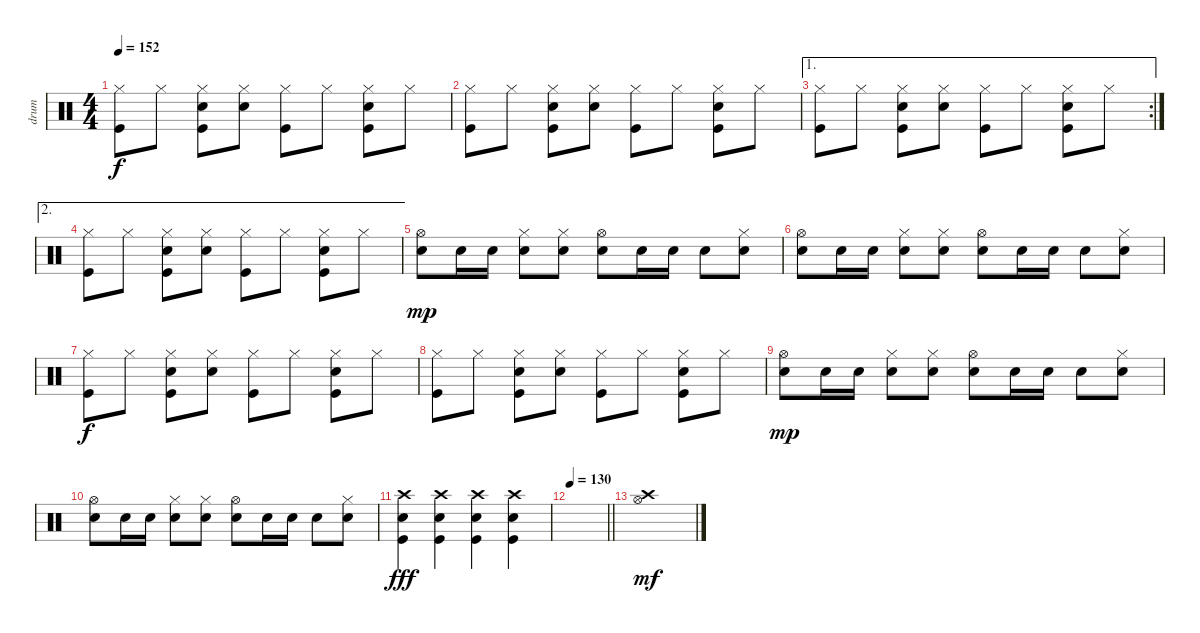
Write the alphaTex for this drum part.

\track ("drum" "drum") {instrument percussion}
\staff {score}
\articulation defaults
\ts (4 4)
\tempo 152
\clef neutral
\ks c
("Hi-Hat (closed)" "Kick (hit)").8{dy f} "Hi-Hat (closed)".8 ("Hi-Hat (closed)" "Snare (hit) 2" "Kick (hit)").8 ("Hi-Hat (closed)" "Snare (hit) 2").8 ("Hi-Hat (closed)" "Kick (hit)").8 "Hi-Hat (closed)".8 ("Hi-Hat (closed)" "Snare (hit) 2" "Kick (hit)").8 "Hi-Hat (closed)".8 |
("Hi-Hat (closed)" "Kick (hit)").8 "Hi-Hat (closed)".8 ("Hi-Hat (closed)" "Snare (hit) 2" "Kick (hit)").8 ("Hi-Hat (closed)" "Snare (hit) 2").8 ("Hi-Hat (closed)" "Kick (hit)").8 "Hi-Hat (closed)".8 ("Hi-Hat (closed)" "Snare (hit) 2" "Kick (hit)").8 "Hi-Hat (closed)".8 |
\ae 1
\rc 2
("Hi-Hat (closed)" "Kick (hit)").8 "Hi-Hat (closed)".8 ("Hi-Hat (closed)" "Snare (hit) 2" "Kick (hit)").8 ("Hi-Hat (closed)" "Snare (hit) 2").8 ("Hi-Hat (closed)" "Kick (hit)").8 "Hi-Hat (closed)".8 ("Hi-Hat (closed)" "Snare (hit) 2" "Kick (hit)").8 "Hi-Hat (closed)".8 |
\ae 2
("Hi-Hat (closed)" "Kick (hit)").8 "Hi-Hat (closed)".8 ("Hi-Hat (closed)" "Snare (hit) 2" "Kick (hit)").8 ("Hi-Hat (closed)" "Snare (hit) 2").8 ("Hi-Hat (closed)" "Kick (hit)").8 "Hi-Hat (closed)".8 ("Hi-Hat (closed)" "Snare (hit) 2" "Kick (hit)").8 "Hi-Hat (closed)".8 |
("Hi-Hat (open)" "Snare (hit) 2").8{dy mp} "Snare (hit) 2".16 "Snare (hit) 2".16 ("Hi-Hat (closed)" "Snare (hit) 2").8 ("Hi-Hat (closed)" "Snare (hit) 2").8 ("Hi-Hat (open)" "Snare (hit) 2").8 "Snare (hit) 2".16 "Snare (hit) 2".16 "Snare (hit) 2".8 ("Hi-Hat (closed)" "Snare (hit) 2").8 |
("Hi-Hat (open)" "Snare (hit) 2").8 "Snare (hit) 2".16 "Snare (hit) 2".16 ("Hi-Hat (closed)" "Snare (hit) 2").8 ("Hi-Hat (closed)" "Snare (hit) 2").8 ("Hi-Hat (open)" "Snare (hit) 2").8 "Snare (hit) 2".16 "Snare (hit) 2".16 "Snare (hit) 2".8 ("Hi-Hat (closed)" "Snare (hit) 2").8 |
("Hi-Hat (closed)" "Kick (hit)").8{dy f} "Hi-Hat (closed)".8 ("Hi-Hat (closed)" "Snare (hit) 2" "Kick (hit)").8 ("Hi-Hat (closed)" "Snare (hit) 2").8 ("Hi-Hat (closed)" "Kick (hit)").8 "Hi-Hat (closed)".8 ("Hi-Hat (closed)" "Snare (hit) 2" "Kick (hit)").8 "Hi-Hat (closed)".8 |
("Hi-Hat (closed)" "Kick (hit)").8 "Hi-Hat (closed)".8 ("Hi-Hat (closed)" "Snare (hit) 2" "Kick (hit)").8 ("Hi-Hat (closed)" "Snare (hit) 2").8 ("Hi-Hat (closed)" "Kick (hit)").8 "Hi-Hat (closed)".8 ("Hi-Hat (closed)" "Snare (hit) 2" "Kick (hit)").8 "Hi-Hat (closed)".8 |
("Hi-Hat (open)" "Snare (hit) 2").8{dy mp} "Snare (hit) 2".16 "Snare (hit) 2".16 ("Hi-Hat (closed)" "Snare (hit) 2").8 ("Hi-Hat (closed)" "Snare (hit) 2").8 ("Hi-Hat (open)" "Snare (hit) 2").8 "Snare (hit) 2".16 "Snare (hit) 2".16 "Snare (hit) 2".8 ("Hi-Hat (closed)" "Snare (hit) 2").8 |
("Hi-Hat (open)" "Snare (hit) 2").8 "Snare (hit) 2".16 "Snare (hit) 2".16 ("Hi-Hat (closed)" "Snare (hit) 2").8 ("Hi-Hat (closed)" "Snare (hit) 2").8 ("Hi-Hat (open)" "Snare (hit) 2").8 "Snare (hit) 2".16 "Snare (hit) 2".16 "Snare (hit) 2".8 ("Hi-Hat (closed)" "Snare (hit) 2").8 |
("Crash high (hit)" "Snare (hit) 2" "Kick (hit)").4{dy fff} ("Crash high (hit)" "Snare (hit) 2" "Kick (hit)").4 ("Crash high (hit)" "Snare (hit) 2" "Kick (hit)").4 ("Crash high (hit)" "Snare (hit) 2" "Kick (hit)").4 |
\tempo 130
\barLineRight lightlight
|
("Crash high (hit)" "Hi-Hat (open)").1{dy mf}
